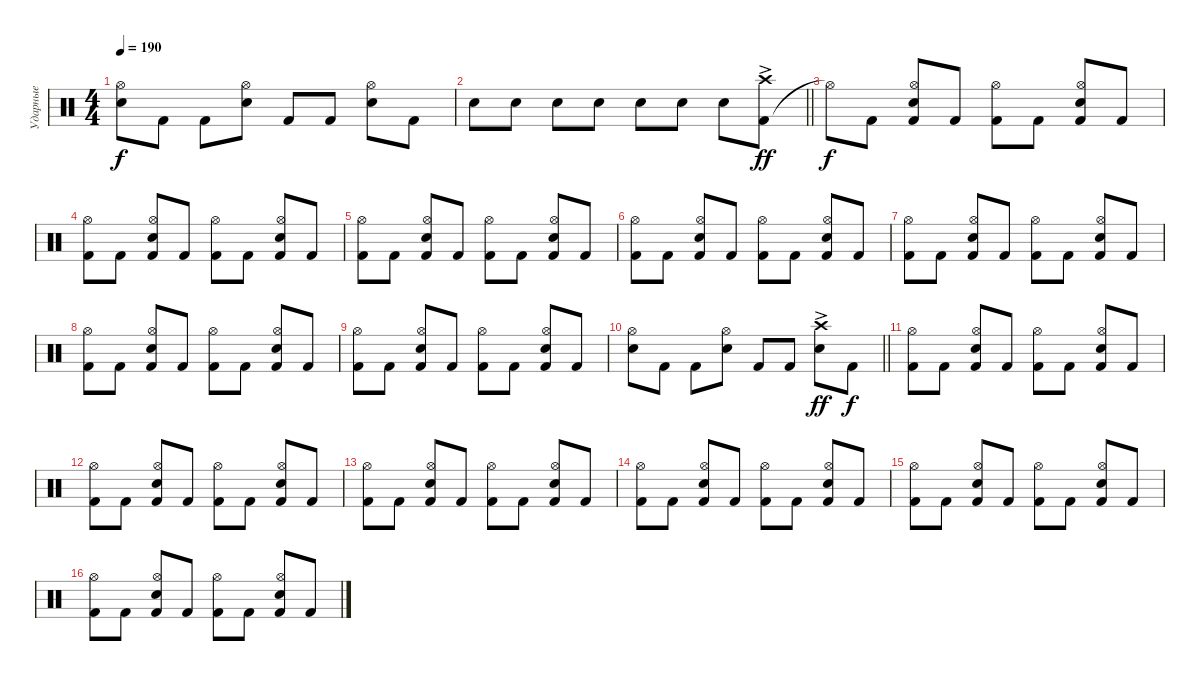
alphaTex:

\track ("Ударные" "Ударные") {instrument percussion}
\staff
\articulation defaults
\ts (4 4)
\tempo 190
\clef neutral
\ks c
("Snare (hit) 2" "Hi-Hat (open)").8{dy f} "Kick (hit) 2".8 "Kick (hit) 2".8 ("Snare (hit) 2" "Hi-Hat (open)").8 "Kick (hit) 2".8 "Kick (hit) 2".8 ("Snare (hit) 2" "Hi-Hat (open)").8 "Kick (hit) 2".8 |
\barLineRight lightlight "Snare (hit) 2".8 "Snare (hit) 2".8 "Snare (hit) 2".8 "Snare (hit) 2".8 "Snare (hit) 2".8 "Snare (hit) 2".8 "Snare (hit) 2".8
("Kick (hit) 2" "Crash high (hit)"{ac}).8{dy ff} |
"Hi-Hat (open)"{t}.8{dy f} "Kick (hit) 2".8 ("Kick (hit) 2" "Snare (hit) 2" "Hi-Hat (open)").8 "Kick (hit) 2".8 ("Kick (hit) 2" "Hi-Hat (open)").8 "Kick (hit) 2".8 ("Kick (hit) 2" "Snare (hit) 2" "Hi-Hat (open)").8 "Kick (hit) 2".8 |
("Kick (hit) 2" "Hi-Hat (open)").8 "Kick (hit) 2".8 ("Kick (hit) 2" "Snare (hit) 2" "Hi-Hat (open)").8 "Kick (hit) 2".8 ("Kick (hit) 2" "Hi-Hat (open)").8 "Kick (hit) 2".8 ("Kick (hit) 2" "Snare (hit) 2" "Hi-Hat (open)").8 "Kick (hit) 2".8 |
("Kick (hit) 2" "Hi-Hat (open)").8 "Kick (hit) 2".8 ("Kick (hit) 2" "Snare (hit) 2" "Hi-Hat (open)").8 "Kick (hit) 2".8 ("Kick (hit) 2" "Hi-Hat (open)").8 "Kick (hit) 2".8 ("Kick (hit) 2" "Snare (hit) 2" "Hi-Hat (open)").8 "Kick (hit) 2".8 |
("Kick (hit) 2" "Hi-Hat (open)").8 "Kick (hit) 2".8 ("Kick (hit) 2" "Snare (hit) 2" "Hi-Hat (open)").8 "Kick (hit) 2".8 ("Kick (hit) 2" "Hi-Hat (open)").8 "Kick (hit) 2".8 ("Kick (hit) 2" "Snare (hit) 2" "Hi-Hat (open)").8 "Kick (hit) 2".8 |
("Kick (hit) 2" "Hi-Hat (open)").8 "Kick (hit) 2".8 ("Kick (hit) 2" "Snare (hit) 2" "Hi-Hat (open)").8 "Kick (hit) 2".8 ("Kick (hit) 2" "Hi-Hat (open)").8 "Kick (hit) 2".8 ("Kick (hit) 2" "Snare (hit) 2" "Hi-Hat (open)").8 "Kick (hit) 2".8 |
("Kick (hit) 2" "Hi-Hat (open)").8 "Kick (hit) 2".8 ("Kick (hit) 2" "Snare (hit) 2" "Hi-Hat (open)").8 "Kick (hit) 2".8 ("Kick (hit) 2" "Hi-Hat (open)").8 "Kick (hit) 2".8 ("Kick (hit) 2" "Snare (hit) 2" "Hi-Hat (open)").8 "Kick (hit) 2".8 |
("Kick (hit) 2" "Hi-Hat (open)").8 "Kick (hit) 2".8 ("Kick (hit) 2" "Snare (hit) 2" "Hi-Hat (open)").8 "Kick (hit) 2".8 ("Kick (hit) 2" "Hi-Hat (open)").8 "Kick (hit) 2".8 ("Kick (hit) 2" "Snare (hit) 2" "Hi-Hat (open)").8 "Kick (hit) 2".8 |
\barLineRight lightlight
("Snare (hit) 2" "Hi-Hat (open)").8 "Kick (hit) 2".8 "Kick (hit) 2".8 ("Snare (hit) 2" "Hi-Hat (open)").8 "Kick (hit) 2".8 "Kick (hit) 2".8 ("Snare (hit) 2" "Crash high (hit)"{ac}).8{dy ff} "Kick (hit) 2".8{dy f} |
("Kick (hit) 2" "Hi-Hat (open)").8 "Kick (hit) 2".8 ("Kick (hit) 2" "Snare (hit) 2" "Hi-Hat (open)").8 "Kick (hit) 2".8 ("Kick (hit) 2" "Hi-Hat (open)").8 "Kick (hit) 2".8 ("Kick (hit) 2" "Snare (hit) 2" "Hi-Hat (open)").8 "Kick (hit) 2".8 |
("Kick (hit) 2" "Hi-Hat (open)").8 "Kick (hit) 2".8 ("Kick (hit) 2" "Snare (hit) 2" "Hi-Hat (open)").8 "Kick (hit) 2".8 ("Kick (hit) 2" "Hi-Hat (open)").8 "Kick (hit) 2".8 ("Kick (hit) 2" "Snare (hit) 2" "Hi-Hat (open)").8 "Kick (hit) 2".8 |
("Kick (hit) 2" "Hi-Hat (open)").8 "Kick (hit) 2".8 ("Kick (hit) 2" "Snare (hit) 2" "Hi-Hat (open)").8 "Kick (hit) 2".8 ("Kick (hit) 2" "Hi-Hat (open)").8 "Kick (hit) 2".8 ("Kick (hit) 2" "Snare (hit) 2" "Hi-Hat (open)").8 "Kick (hit) 2".8 |
("Kick (hit) 2" "Hi-Hat (open)").8 "Kick (hit) 2".8 ("Kick (hit) 2" "Snare (hit) 2" "Hi-Hat (open)").8 "Kick (hit) 2".8 ("Kick (hit) 2" "Hi-Hat (open)").8 "Kick (hit) 2".8 ("Kick (hit) 2" "Snare (hit) 2" "Hi-Hat (open)").8 "Kick (hit) 2".8 |
("Kick (hit) 2" "Hi-Hat (open)").8 "Kick (hit) 2".8 ("Kick (hit) 2" "Snare (hit) 2" "Hi-Hat (open)").8 "Kick (hit) 2".8 ("Kick (hit) 2" "Hi-Hat (open)").8 "Kick (hit) 2".8 ("Kick (hit) 2" "Snare (hit) 2" "Hi-Hat (open)").8 "Kick (hit) 2".8 |
("Kick (hit) 2" "Hi-Hat (open)").8 "Kick (hit) 2".8 ("Kick (hit) 2" "Snare (hit) 2" "Hi-Hat (open)").8 "Kick (hit) 2".8 ("Kick (hit) 2" "Hi-Hat (open)").8 "Kick (hit) 2".8 ("Kick (hit) 2" "Snare (hit) 2" "Hi-Hat (open)").8 "Kick (hit) 2".8
